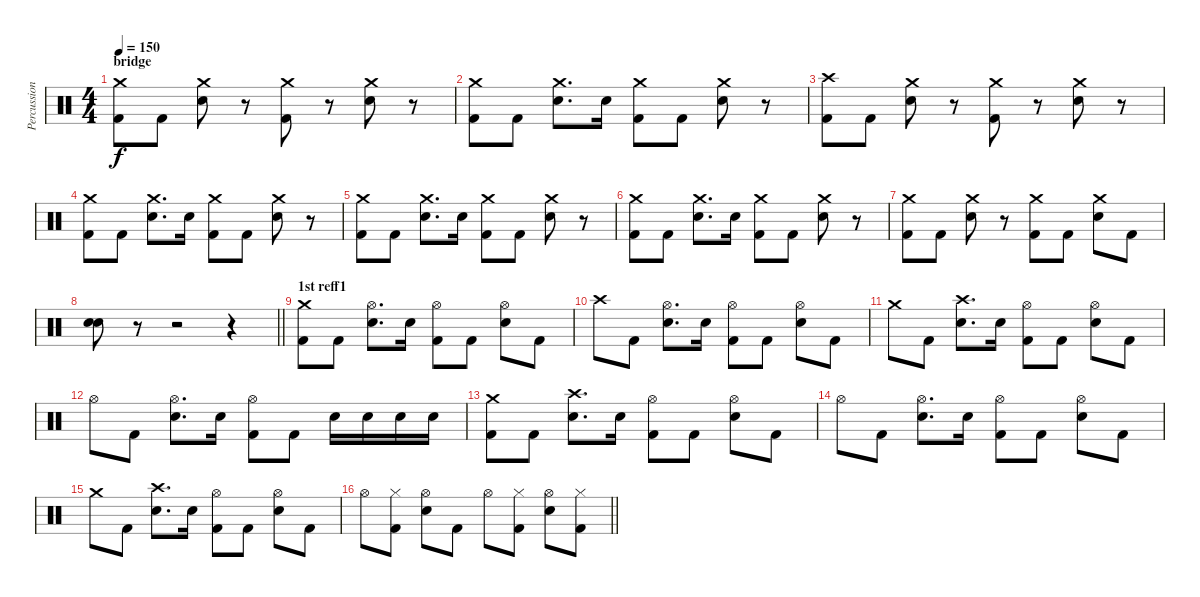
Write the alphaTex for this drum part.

\track ("Percussion" "Percussion") {instrument percussion}
\staff {score}
\articulation defaults
\ts (4 4)
\section ("" "bridge")
\tempo 150
\clef neutral
\ks c
("Crash medium (hit)" "Kick (hit) 2").8{dy f} "Kick (hit) 2".8 ("Crash medium (hit)" "Electric Snare (hit)").8 r.8 ("Crash medium (hit)" "Kick (hit) 2").8 r.8 ("Crash medium (hit)" "Electric Snare (hit)").8 r.8 |
("Crash medium (hit)" "Kick (hit) 2").8 "Kick (hit) 2".8 ("Crash medium (hit)" "Electric Snare (hit)").8{d} "Electric Snare (hit)".16 ("Crash medium (hit)" "Kick (hit) 2").8 "Kick (hit) 2".8 ("Crash medium (hit)" "Electric Snare (hit)").8 r.8 |
("Crash high (hit)" "Kick (hit) 2").8 "Kick (hit) 2".8 ("Crash medium (hit)" "Electric Snare (hit)").8 r.8 ("Crash medium (hit)" "Kick (hit) 2").8 r.8 ("Crash medium (hit)" "Electric Snare (hit)").8 r.8 |
("Crash medium (hit)" "Kick (hit) 2").8 "Kick (hit) 2".8 ("Crash medium (hit)" "Electric Snare (hit)").8{d} "Electric Snare (hit)".16 ("Crash medium (hit)" "Kick (hit) 2").8 "Kick (hit) 2".8 ("Crash medium (hit)" "Electric Snare (hit)").8 r.8 |
("Crash medium (hit)" "Kick (hit) 2").8 "Kick (hit) 2".8 ("Crash medium (hit)" "Electric Snare (hit)").8{d} "Electric Snare (hit)".16 ("Crash medium (hit)" "Kick (hit) 2").8 "Kick (hit) 2".8 ("Crash medium (hit)" "Electric Snare (hit)").8 r.8 |
("Crash medium (hit)" "Kick (hit) 2").8 "Kick (hit) 2".8 ("Crash medium (hit)" "Electric Snare (hit)").8{d} "Electric Snare (hit)".16 ("Crash medium (hit)" "Kick (hit) 2").8 "Kick (hit) 2".8 ("Crash medium (hit)" "Electric Snare (hit)").8 r.8 |
("Crash medium (hit)" "Kick (hit) 2").8 "Kick (hit) 2".8 ("Crash medium (hit)" "Electric Snare (hit)").8 r.8 ("Crash medium (hit)" "Kick (hit) 2").8 "Kick (hit) 2".8 ("Crash medium (hit)" "Electric Snare (hit)").8 "Kick (hit) 2".8 |
\barLineRight lightlight
("Electric Snare (hit)" "Electric Snare (hit)").8 r.8 r.2 r.4 |
\section ("" "1st reff1")
("Crash medium (hit)" "Kick (hit) 2").8 "Kick (hit) 2".8 ("Hi-Hat (open)" "Electric Snare (hit)").8{d} "Electric Snare (hit)".16 ("Hi-Hat (open)" "Kick (hit) 2").8 "Kick (hit) 2".8 ("Hi-Hat (open)" "Electric Snare (hit)").8 "Kick (hit) 2".8 |
"Crash high (hit)".8 "Kick (hit) 2".8 ("Hi-Hat (open)" "Electric Snare (hit)").8{d} "Electric Snare (hit)".16 ("Hi-Hat (open)" "Kick (hit) 2").8 "Kick (hit) 2".8 ("Hi-Hat (open)" "Electric Snare (hit)").8 "Kick (hit) 2".8 |
"Crash medium (hit)".8 "Kick (hit) 2".8 ("Crash high (hit)" "Electric Snare (hit)").8{d} "Electric Snare (hit)".16 ("Hi-Hat (open)" "Kick (hit) 2").8 "Kick (hit) 2".8 ("Hi-Hat (open)" "Electric Snare (hit)").8 "Kick (hit) 2".8 |
"Hi-Hat (open)".8 "Kick (hit) 2".8 ("Hi-Hat (open)" "Electric Snare (hit)").8{d} "Electric Snare (hit)".16 ("Hi-Hat (open)" "Kick (hit) 2").8 "Kick (hit) 2".8 "Electric Snare (hit)".16 "Electric Snare (hit)".16 "Electric Snare (hit)".16 "Electric Snare (hit)".16 |
("Crash medium (hit)" "Kick (hit) 2").8 "Kick (hit) 2".8 ("Crash high (hit)" "Electric Snare (hit)").8{d} "Electric Snare (hit)".16 ("Hi-Hat (open)" "Kick (hit) 2").8 "Kick (hit) 2".8 ("Hi-Hat (open)" "Electric Snare (hit)").8 "Kick (hit) 2".8 |
"Hi-Hat (open)".8 "Kick (hit) 2".8 ("Hi-Hat (open)" "Electric Snare (hit)").8{d} "Electric Snare (hit)".16 ("Hi-Hat (open)" "Kick (hit) 2").8 "Kick (hit) 2".8 ("Hi-Hat (open)" "Electric Snare (hit)").8 "Kick (hit) 2".8 |
"Crash medium (hit)".8 "Kick (hit) 2".8 ("Crash high (hit)" "Electric Snare (hit)").8{d} "Electric Snare (hit)".16 ("Hi-Hat (open)" "Kick (hit) 2").8 "Kick (hit) 2".8 ("Hi-Hat (open)" "Electric Snare (hit)").8 "Kick (hit) 2".8 |
\barLineRight lightlight "Hi-Hat (open)".8
("Hi-Hat (closed)" "Kick (hit) 2").8 ("Hi-Hat (open)" "Electric Snare (hit)").8 "Kick (hit) 2".8 "Hi-Hat (open)".8 ("Hi-Hat (closed)" "Kick (hit) 2").8 ("Hi-Hat (open)" "Electric Snare (hit)").8 ("Hi-Hat (closed)" "Kick (hit) 2").8
